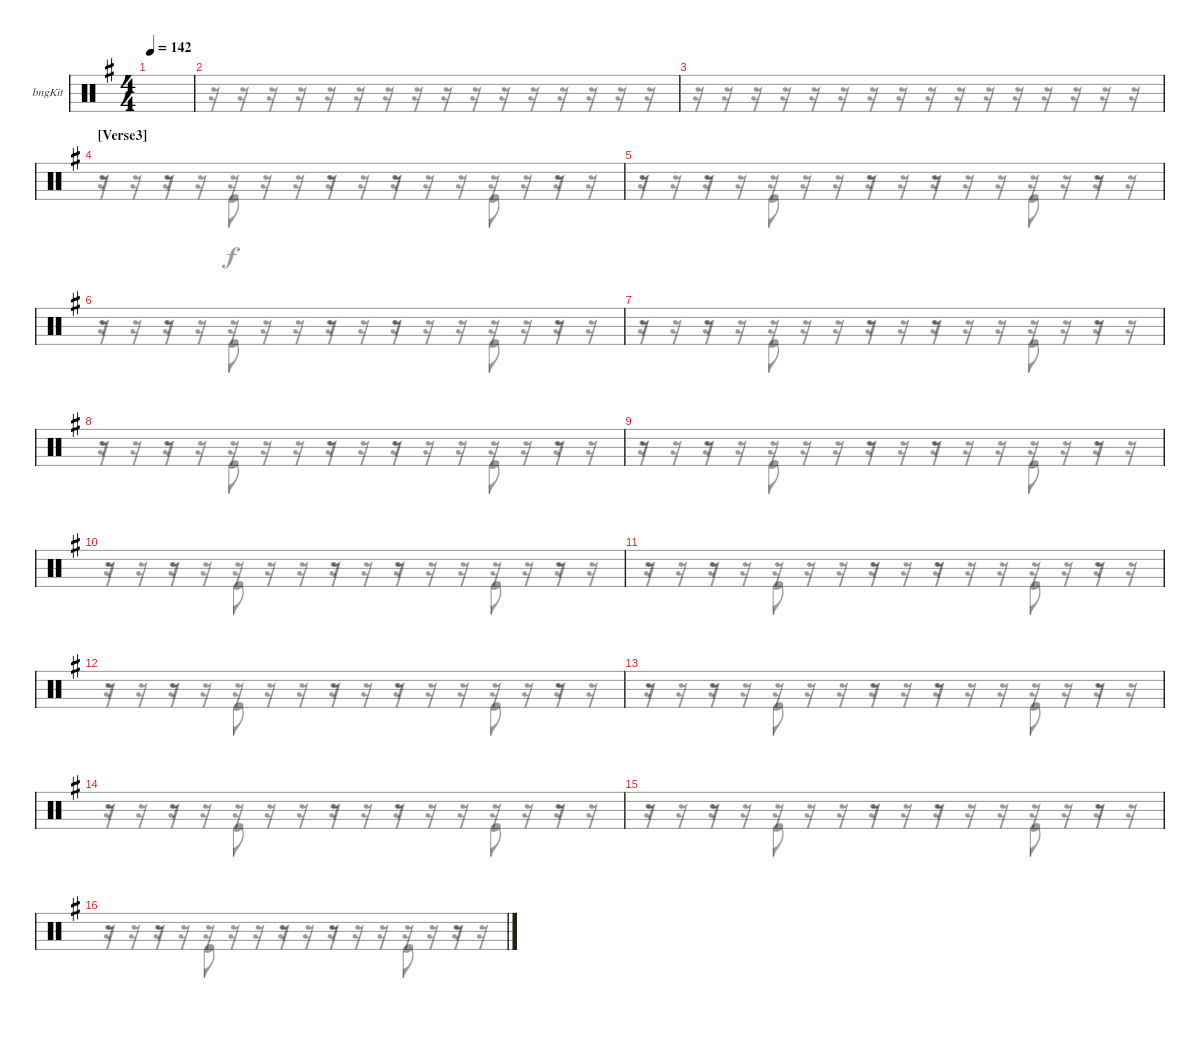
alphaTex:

\bracketExtendMode groupsimilarinstruments
\firstSystemTrackNameOrientation horizontal
\otherSystemsTrackNameOrientation horizontal
\track ("Bongos" "bngKit") {instrument percussion}
\staff {score}
\articulation defaults
\voice
\ts (4 4)
\tempo 142
\clef neutral
\ks eminor
|
|
|
\section ("" "[Verse3]")
|
|
|
|
|
|
|
|
|
|
|
|
\voice
\clef neutral
\ks eminor
|
r.16 r.16 r.16 r.16 r.16 r.16 r.16 r.16 r.16 r.16 r.16 r.16 r.16 r.16 r.16 r.16 |
r.16 r.16 r.16 r.16 r.16 r.16 r.16 r.16 r.16 r.16 r.16 r.16 r.16 r.16 r.16 r.16 |
r.16 r.16 r.16 r.16 r.16 r.16 r.16 r.16 r.16 r.16 r.16 r.16 r.16 r.16 r.16 r.16 |
r.16 r.16 r.16 r.16 r.16 r.16 r.16 r.16 r.16 r.16 r.16 r.16 r.16 r.16 r.16 r.16 |
r.16 r.16 r.16 r.16 r.16 r.16 r.16 r.16 r.16 r.16 r.16 r.16 r.16 r.16 r.16 r.16 |
r.16 r.16 r.16 r.16 r.16 r.16 r.16 r.16 r.16 r.16 r.16 r.16 r.16 r.16 r.16 r.16 |
r.16 r.16 r.16 r.16 r.16 r.16 r.16 r.16 r.16 r.16 r.16 r.16 r.16 r.16 r.16 r.16 |
r.16 r.16 r.16 r.16 r.16 r.16 r.16 r.16 r.16 r.16 r.16 r.16 r.16 r.16 r.16 r.16 |
r.16 r.16 r.16 r.16 r.16 r.16 r.16 r.16 r.16 r.16 r.16 r.16 r.16 r.16 r.16 r.16 |
r.16 r.16 r.16 r.16 r.16 r.16 r.16 r.16 r.16 r.16 r.16 r.16 r.16 r.16 r.16 r.16 |
r.16 r.16 r.16 r.16 r.16 r.16 r.16 r.16 r.16 r.16 r.16 r.16 r.16 r.16 r.16 r.16 |
r.16 r.16 r.16 r.16 r.16 r.16 r.16 r.16 r.16 r.16 r.16 r.16 r.16 r.16 r.16 r.16 |
r.16 r.16 r.16 r.16 r.16 r.16 r.16 r.16 r.16 r.16 r.16 r.16 r.16 r.16 r.16 r.16 |
r.16 r.16 r.16 r.16 r.16 r.16 r.16 r.16 r.16 r.16 r.16 r.16 r.16 r.16 r.16 r.16 |
r.16 r.16 r.16 r.16 r.16 r.16 r.16 r.16 r.16 r.16 r.16 r.16 r.16 r.16 r.16 r.16
\voice
\clef neutral
\ottava regular
\simile none
\ks eminor
|
|
|
r.16 r.16 r.16 r.16 r.16 r.16 r.16 r.16 r.16 r.16 r.16 r.16 r.16 r.16 r.16 r.16 |
r.16 r.16 r.16 r.16 r.16 r.16 r.16 r.16 r.16 r.16 r.16 r.16 r.16 r.16 r.16 r.16 |
r.16 r.16 r.16 r.16 r.16 r.16 r.16 r.16 r.16 r.16 r.16 r.16 r.16 r.16 r.16 r.16 |
r.16 r.16 r.16 r.16 r.16 r.16 r.16 r.16 r.16 r.16 r.16 r.16 r.16 r.16 r.16 r.16 |
r.16 r.16 r.16 r.16 r.16 r.16 r.16 r.16 r.16 r.16 r.16 r.16 r.16 r.16 r.16 r.16 |
r.16 r.16 r.16 r.16 r.16 r.16 r.16 r.16 r.16 r.16 r.16 r.16 r.16 r.16 r.16 r.16 |
r.16 r.16 r.16 r.16 r.16 r.16 r.16 r.16 r.16 r.16 r.16 r.16 r.16 r.16 r.16 r.16 |
r.16 r.16 r.16 r.16 r.16 r.16 r.16 r.16 r.16 r.16 r.16 r.16 r.16 r.16 r.16 r.16 |
r.16 r.16 r.16 r.16 r.16 r.16 r.16 r.16 r.16 r.16 r.16 r.16 r.16 r.16 r.16 r.16 |
r.16 r.16 r.16 r.16 r.16 r.16 r.16 r.16 r.16 r.16 r.16 r.16 r.16 r.16 r.16 r.16 |
r.16 r.16 r.16 r.16 r.16 r.16 r.16 r.16 r.16 r.16 r.16 r.16 r.16 r.16 r.16 r.16 |
r.16 r.16 r.16 r.16 r.16 r.16 r.16 r.16 r.16 r.16 r.16 r.16 r.16 r.16 r.16 r.16 |
r.16 r.16 r.16 r.16 r.16 r.16 r.16 r.16 r.16 r.16 r.16 r.16 r.16 r.16 r.16 r.16
\voice
\clef neutral
\ottava regular
\simile none
\ks eminor
|
|
|
r.8 r.8 "Kick (hit)".8 r.16 r.8 r.8 r.16 "Kick (hit)".8 r.8 |
r.8 r.8 "Kick (hit)".8 r.16 r.8 r.8 r.16 "Kick (hit)".8 r.8 |
r.8 r.8 "Kick (hit)".8 r.16 r.8 r.8 r.16 "Kick (hit)".8 r.8 |
r.8 r.8 "Kick (hit)".8 r.16 r.8 r.8 r.16 "Kick (hit)".8 r.8 |
r.8 r.8 "Kick (hit)".8 r.16 r.8 r.8 r.16 "Kick (hit)".8 r.8 |
r.8 r.8 "Kick (hit)".8 r.16 r.8 r.8 r.16 "Kick (hit)".8 r.8 |
r.8 r.8 "Kick (hit)".8 r.16 r.8 r.8 r.16 "Kick (hit)".8 r.8 |
r.8 r.8 "Kick (hit)".8 r.16 r.8 r.8 r.16 "Kick (hit)".8 r.8 |
r.8 r.8 "Kick (hit)".8 r.16 r.8 r.8 r.16 "Kick (hit)".8 r.8 |
r.8 r.8 "Kick (hit)".8 r.16 r.8 r.8 r.16 "Kick (hit)".8 r.8 |
r.8 r.8 "Kick (hit)".8 r.16 r.8 r.8 r.16 "Kick (hit)".8 r.8 |
r.8 r.8 "Kick (hit)".8 r.16 r.8 r.8 r.16 "Kick (hit)".8 r.8 |
r.8 r.8 "Kick (hit)".8 r.16 r.8 r.8 r.16 "Kick (hit)".8 r.8
